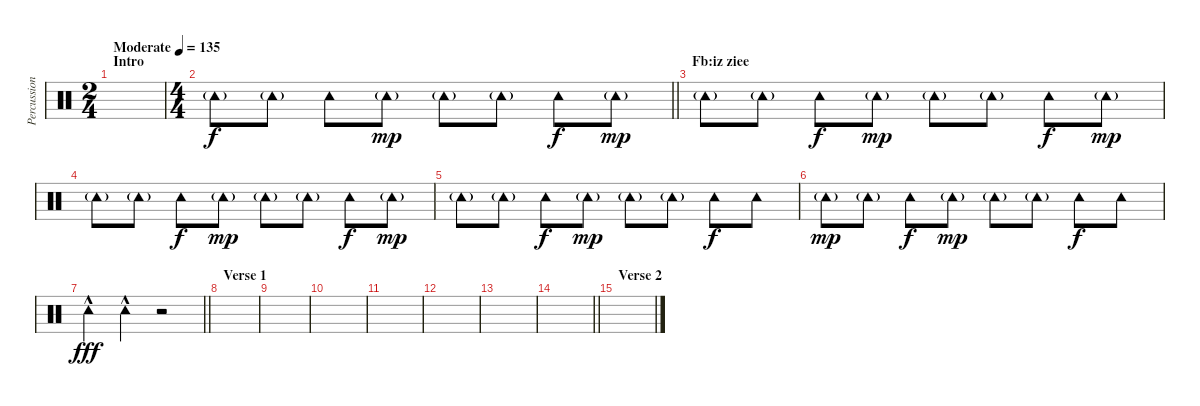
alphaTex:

\track ("Percussion 2" "Percussion") {instrument percussion}
\staff {score}
\articulation defaults
\ts (2 4)
\section ("" "Intro")
\tempo (135 "Moderate")
\clef neutral
\ks c
|
\ts (4 4)
\barLineRight lightlight "Tambourine (hit)"{g}.8 "Tambourine (hit)"{g}.8 "Tambourine (hit)".8{dy f} "Tambourine (hit)"{g}.8{dy mp} "Tambourine (hit)"{g}.8 "Tambourine (hit)"{g}.8 "Tambourine (hit)".8{dy f} "Tambourine (hit)"{g}.8{dy mp}
|
\section ("" "Fb:iz ziee")
"Tambourine (hit)"{g}.8 "Tambourine (hit)"{g}.8 "Tambourine (hit)".8{dy f} "Tambourine (hit)"{g}.8{dy mp} "Tambourine (hit)"{g}.8 "Tambourine (hit)"{g}.8 "Tambourine (hit)".8{dy f} "Tambourine (hit)"{g}.8{dy mp} |
"Tambourine (hit)"{g}.8 "Tambourine (hit)"{g}.8 "Tambourine (hit)".8{dy f} "Tambourine (hit)"{g}.8{dy mp} "Tambourine (hit)"{g}.8 "Tambourine (hit)"{g}.8 "Tambourine (hit)".8{dy f} "Tambourine (hit)"{g}.8{dy mp} |
"Tambourine (hit)"{g}.8 "Tambourine (hit)"{g}.8 "Tambourine (hit)".8{dy f} "Tambourine (hit)"{g}.8{dy mp} "Tambourine (hit)"{g}.8 "Tambourine (hit)"{g}.8 "Tambourine (hit)".8{dy f} "Tambourine (hit)".8 |
"Tambourine (hit)"{g}.8{dy mp} "Tambourine (hit)"{g}.8 "Tambourine (hit)".8{dy f} "Tambourine (hit)"{g}.8{dy mp} "Tambourine (hit)"{g}.8 "Tambourine (hit)"{g}.8 "Tambourine (hit)".8{dy f} "Tambourine (hit)".8 |
\barLineRight lightlight "Tambourine (hit)"{hac}.4{dy fff} "Tambourine (hit)"{hac}.4
r.2 |
\section ("" "Verse 1")
|
|
|
|
|
|
\barLineRight lightlight
|
\section ("" "Verse 2")
